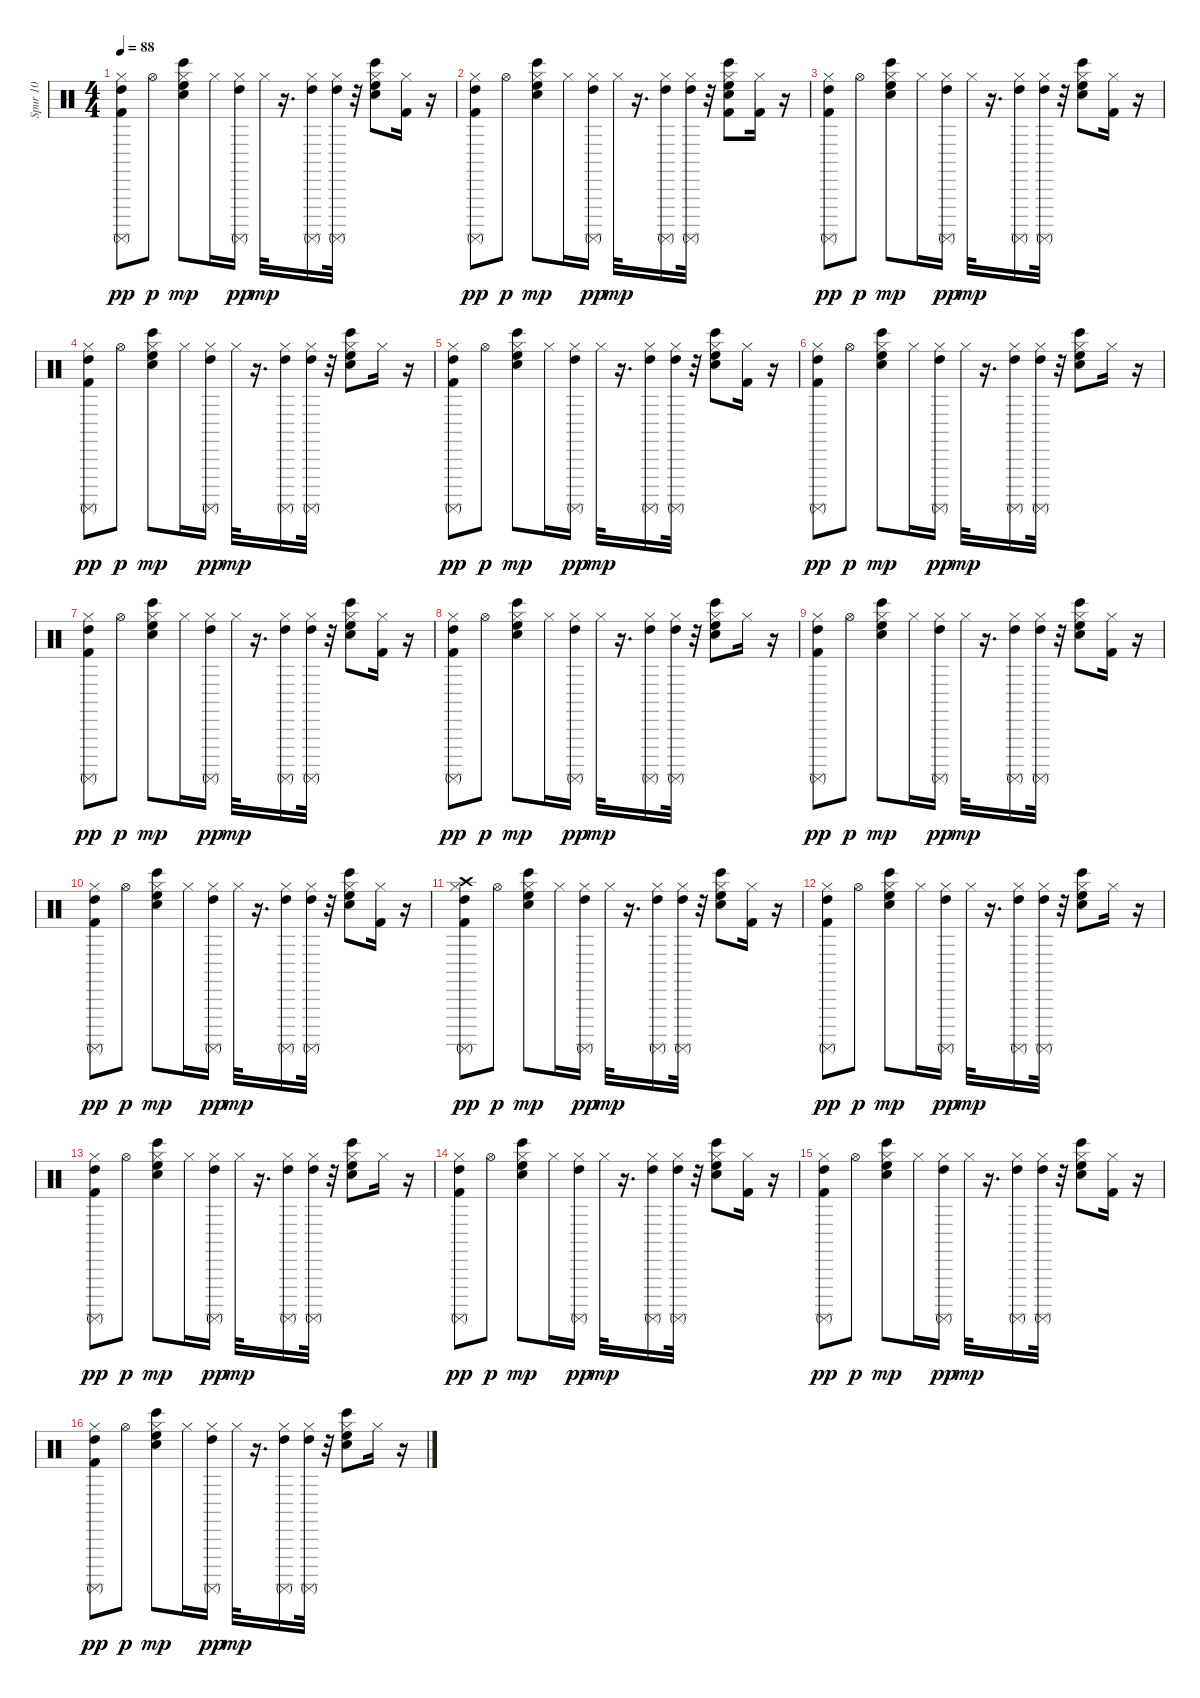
\track ("Spur 10" "Spur 10") {instrument percussion}
\staff {score}
\articulation defaults
\ts (4 4)
\tempo 88
\clef neutral
\ks c
("Kick (hit) 2" "High Tom (hit)" "Surdo (mute)" "Hi-Hat (closed)").8{dy pp} "Hi-Hat (open)".8{dy p} ("Bongo High (hit)" "Hand Clap (hit)" "High Floor Tom (hit)" "Hi-Hat (closed)").8{dy mp} "Hi-Hat (closed)".16 ("High Tom (hit)" "Surdo (mute)" "Hi-Hat (closed)").16{dy pp} "Hi-Hat (closed)".32{dy mp} r.16{d} ("High Tom (hit)" "Surdo (mute)" "Hi-Hat (closed)").16 ("Hi-Hat (closed)" "High Tom (hit)" "Surdo (mute)").32 r.32 ("Bongo High (hit)" "Hand Clap (hit)" "High Floor Tom (hit)" "Hi-Hat (closed)").8 ("Kick (hit) 2" "Hi-Hat (closed)").16 r.16 |
("Kick (hit) 2" "High Tom (hit)" "Surdo (mute)" "Hi-Hat (closed)").8{dy pp} "Hi-Hat (open)".8{dy p} ("Bongo High (hit)" "Hand Clap (hit)" "High Floor Tom (hit)" "Hi-Hat (closed)").8{dy mp} "Hi-Hat (closed)".16 ("High Tom (hit)" "Surdo (mute)" "Hi-Hat (closed)").16{dy pp} "Hi-Hat (closed)".32{dy mp} r.16{d} ("High Tom (hit)" "Surdo (mute)" "Hi-Hat (closed)").16 ("Hi-Hat (closed)" "High Tom (hit)" "Surdo (mute)").32 r.32 ("Bongo High (hit)" "Kick (hit) 2" "Hand Clap (hit)" "High Floor Tom (hit)" "Hi-Hat (closed)").8 ("Kick (hit) 2" "Hi-Hat (closed)").16 r.16 |
("Kick (hit) 2" "High Tom (hit)" "Surdo (mute)" "Hi-Hat (closed)").8{dy pp} "Hi-Hat (open)".8{dy p} ("Bongo High (hit)" "Hand Clap (hit)" "High Floor Tom (hit)" "Hi-Hat (closed)").8{dy mp} "Hi-Hat (closed)".16 ("High Tom (hit)" "Surdo (mute)" "Hi-Hat (closed)").16{dy pp} "Hi-Hat (closed)".32{dy mp} r.16{d} ("High Tom (hit)" "Surdo (mute)" "Hi-Hat (closed)").16 ("Hi-Hat (closed)" "High Tom (hit)" "Surdo (mute)").32 r.32 ("Bongo High (hit)" "Hand Clap (hit)" "High Floor Tom (hit)" "Hi-Hat (closed)").8 ("Kick (hit) 2" "Hi-Hat (closed)").16 r.16 |
("Kick (hit) 2" "High Tom (hit)" "Surdo (mute)" "Hi-Hat (closed)").8{dy pp} "Hi-Hat (open)".8{dy p} ("Bongo High (hit)" "Hand Clap (hit)" "High Floor Tom (hit)" "Hi-Hat (closed)").8{dy mp} "Hi-Hat (closed)".16 ("High Tom (hit)" "Surdo (mute)" "Hi-Hat (closed)").16{dy pp} "Hi-Hat (closed)".32{dy mp} r.16{d} ("High Tom (hit)" "Surdo (mute)" "Hi-Hat (closed)").16 ("Hi-Hat (closed)" "High Tom (hit)" "Surdo (mute)").32 r.32 ("Bongo High (hit)" "Hand Clap (hit)" "High Floor Tom (hit)" "Hi-Hat (closed)").8 "Hi-Hat (closed)".16 r.16 |
("Kick (hit) 2" "High Tom (hit)" "Surdo (mute)" "Hi-Hat (closed)").8{dy pp} "Hi-Hat (open)".8{dy p} ("Bongo High (hit)" "Hand Clap (hit)" "High Floor Tom (hit)" "Hi-Hat (closed)").8{dy mp} "Hi-Hat (closed)".16 ("High Tom (hit)" "Surdo (mute)" "Hi-Hat (closed)").16{dy pp} "Hi-Hat (closed)".32{dy mp} r.16{d} ("High Tom (hit)" "Surdo (mute)" "Hi-Hat (closed)").16 ("Hi-Hat (closed)" "High Tom (hit)" "Surdo (mute)").32 r.32 ("Bongo High (hit)" "Hand Clap (hit)" "High Floor Tom (hit)" "Hi-Hat (closed)").8 ("Kick (hit) 2" "Hi-Hat (closed)").16 r.16 |
("Kick (hit) 2" "High Tom (hit)" "Surdo (mute)" "Hi-Hat (closed)").8{dy pp} "Hi-Hat (open)".8{dy p} ("Bongo High (hit)" "Hand Clap (hit)" "High Floor Tom (hit)" "Hi-Hat (closed)").8{dy mp} "Hi-Hat (closed)".16 ("High Tom (hit)" "Surdo (mute)" "Hi-Hat (closed)").16{dy pp} "Hi-Hat (closed)".32{dy mp} r.16{d} ("High Tom (hit)" "Surdo (mute)" "Hi-Hat (closed)").16 ("Hi-Hat (closed)" "High Tom (hit)" "Surdo (mute)").32 r.32 ("Bongo High (hit)" "Hand Clap (hit)" "High Floor Tom (hit)" "Hi-Hat (closed)").8 "Hi-Hat (closed)".16 r.16 |
("Kick (hit) 2" "High Tom (hit)" "Surdo (mute)" "Hi-Hat (closed)").8{dy pp} "Hi-Hat (open)".8{dy p} ("Bongo High (hit)" "Hand Clap (hit)" "High Floor Tom (hit)" "Hi-Hat (closed)").8{dy mp} "Hi-Hat (closed)".16 ("High Tom (hit)" "Surdo (mute)" "Hi-Hat (closed)").16{dy pp} "Hi-Hat (closed)".32{dy mp} r.16{d} ("High Tom (hit)" "Surdo (mute)" "Hi-Hat (closed)").16 ("Hi-Hat (closed)" "High Tom (hit)" "Surdo (mute)").32 r.32 ("Bongo High (hit)" "Hand Clap (hit)" "High Floor Tom (hit)" "Hi-Hat (closed)").8 ("Kick (hit) 2" "Hi-Hat (closed)").16 r.16 |
("Kick (hit) 2" "High Tom (hit)" "Surdo (mute)" "Hi-Hat (closed)").8{dy pp} "Hi-Hat (open)".8{dy p} ("Bongo High (hit)" "Hand Clap (hit)" "High Floor Tom (hit)" "Hi-Hat (closed)").8{dy mp} "Hi-Hat (closed)".16 ("High Tom (hit)" "Surdo (mute)" "Hi-Hat (closed)").16{dy pp} "Hi-Hat (closed)".32{dy mp} r.16{d} ("High Tom (hit)" "Surdo (mute)" "Hi-Hat (closed)").16 ("Hi-Hat (closed)" "High Tom (hit)" "Surdo (mute)").32 r.32 ("Bongo High (hit)" "Hand Clap (hit)" "High Floor Tom (hit)" "Hi-Hat (closed)").8 "Hi-Hat (closed)".16 r.16 |
("Kick (hit) 2" "High Tom (hit)" "Surdo (mute)" "Hi-Hat (closed)").8{dy pp} "Hi-Hat (open)".8{dy p} ("Bongo High (hit)" "Hand Clap (hit)" "High Floor Tom (hit)" "Hi-Hat (closed)").8{dy mp} "Hi-Hat (closed)".16 ("High Tom (hit)" "Surdo (mute)" "Hi-Hat (closed)").16{dy pp} "Hi-Hat (closed)".32{dy mp} r.16{d} ("High Tom (hit)" "Surdo (mute)" "Hi-Hat (closed)").16 ("Hi-Hat (closed)" "High Tom (hit)" "Surdo (mute)").32 r.32 ("Bongo High (hit)" "Hand Clap (hit)" "High Floor Tom (hit)" "Hi-Hat (closed)").8 ("Kick (hit) 2" "Hi-Hat (closed)").16 r.16 |
("Kick (hit) 2" "High Tom (hit)" "Surdo (mute)" "Hi-Hat (closed)").8{dy pp} "Hi-Hat (open)".8{dy p} ("Bongo High (hit)" "Hand Clap (hit)" "High Floor Tom (hit)" "Hi-Hat (closed)").8{dy mp} "Hi-Hat (closed)".16 ("High Tom (hit)" "Surdo (mute)" "Hi-Hat (closed)").16{dy pp} "Hi-Hat (closed)".32{dy mp} r.16{d} ("High Tom (hit)" "Surdo (mute)" "Hi-Hat (closed)").16 ("Hi-Hat (closed)" "High Tom (hit)" "Surdo (mute)").32 r.32 ("Bongo High (hit)" "Hand Clap (hit)" "High Floor Tom (hit)" "Hi-Hat (closed)").8 ("Kick (hit) 2" "Hi-Hat (closed)").16 r.16 |
("Kick (hit) 2" "High Tom (hit)" "Surdo (mute)" "Crash high (hit)" "Hi-Hat (closed)").8{dy pp} "Hi-Hat (open)".8{dy p} ("Bongo High (hit)" "Hand Clap (hit)" "High Floor Tom (hit)" "Hi-Hat (closed)").8{dy mp} "Hi-Hat (closed)".16 ("High Tom (hit)" "Surdo (mute)" "Hi-Hat (closed)").16{dy pp} "Hi-Hat (closed)".32{dy mp} r.16{d} ("High Tom (hit)" "Surdo (mute)" "Hi-Hat (closed)").16 ("Hi-Hat (closed)" "High Tom (hit)" "Surdo (mute)").32 r.32 ("Bongo High (hit)" "Hand Clap (hit)" "High Floor Tom (hit)" "Hi-Hat (closed)").8 ("Kick (hit) 2" "Hi-Hat (closed)").16 r.16 |
("Kick (hit) 2" "High Tom (hit)" "Surdo (mute)" "Hi-Hat (closed)").8{dy pp} "Hi-Hat (open)".8{dy p} ("Bongo High (hit)" "Hand Clap (hit)" "High Floor Tom (hit)" "Hi-Hat (closed)").8{dy mp} "Hi-Hat (closed)".16 ("High Tom (hit)" "Surdo (mute)" "Hi-Hat (closed)").16{dy pp} "Hi-Hat (closed)".32{dy mp} r.16{d} ("High Tom (hit)" "Surdo (mute)" "Hi-Hat (closed)").16 ("Hi-Hat (closed)" "High Tom (hit)" "Surdo (mute)").32 r.32 ("Bongo High (hit)" "Hand Clap (hit)" "High Floor Tom (hit)" "Hi-Hat (closed)").8 "Hi-Hat (closed)".16 r.16 |
("Kick (hit) 2" "High Tom (hit)" "Surdo (mute)" "Hi-Hat (closed)").8{dy pp} "Hi-Hat (open)".8{dy p} ("Bongo High (hit)" "Hand Clap (hit)" "High Floor Tom (hit)" "Hi-Hat (closed)").8{dy mp} "Hi-Hat (closed)".16 ("High Tom (hit)" "Surdo (mute)" "Hi-Hat (closed)").16{dy pp} "Hi-Hat (closed)".32{dy mp} r.16{d} ("High Tom (hit)" "Surdo (mute)" "Hi-Hat (closed)").16 ("Hi-Hat (closed)" "High Tom (hit)" "Surdo (mute)").32 r.32 ("Bongo High (hit)" "Hand Clap (hit)" "High Floor Tom (hit)" "Hi-Hat (closed)").8 "Hi-Hat (closed)".16 r.16 |
("Kick (hit) 2" "High Tom (hit)" "Surdo (mute)" "Hi-Hat (closed)").8{dy pp} "Hi-Hat (open)".8{dy p} ("Bongo High (hit)" "Hand Clap (hit)" "High Floor Tom (hit)" "Hi-Hat (closed)").8{dy mp} "Hi-Hat (closed)".16 ("High Tom (hit)" "Surdo (mute)" "Hi-Hat (closed)").16{dy pp} "Hi-Hat (closed)".32{dy mp} r.16{d} ("High Tom (hit)" "Surdo (mute)" "Hi-Hat (closed)").16 ("Hi-Hat (closed)" "High Tom (hit)" "Surdo (mute)").32 r.32 ("Bongo High (hit)" "Hand Clap (hit)" "High Floor Tom (hit)" "Hi-Hat (closed)").8 ("Kick (hit) 2" "Hi-Hat (closed)").16 r.16 |
("Kick (hit) 2" "High Tom (hit)" "Surdo (mute)" "Hi-Hat (closed)").8{dy pp} "Hi-Hat (open)".8{dy p} ("Bongo High (hit)" "Hand Clap (hit)" "High Floor Tom (hit)" "Hi-Hat (closed)").8{dy mp} "Hi-Hat (closed)".16 ("High Tom (hit)" "Surdo (mute)" "Hi-Hat (closed)").16{dy pp} "Hi-Hat (closed)".32{dy mp} r.16{d} ("High Tom (hit)" "Surdo (mute)" "Hi-Hat (closed)").16 ("Hi-Hat (closed)" "High Tom (hit)" "Surdo (mute)").32 r.32 ("Bongo High (hit)" "Hand Clap (hit)" "High Floor Tom (hit)" "Hi-Hat (closed)").8 ("Kick (hit) 2" "Hi-Hat (closed)").16 r.16 |
("Kick (hit) 2" "High Tom (hit)" "Surdo (mute)" "Hi-Hat (closed)").8{dy pp} "Hi-Hat (open)".8{dy p} ("Bongo High (hit)" "Hand Clap (hit)" "High Floor Tom (hit)" "Hi-Hat (closed)").8{dy mp} "Hi-Hat (closed)".16 ("High Tom (hit)" "Surdo (mute)" "Hi-Hat (closed)").16{dy pp} "Hi-Hat (closed)".32{dy mp} r.16{d} ("High Tom (hit)" "Surdo (mute)" "Hi-Hat (closed)").16 ("Hi-Hat (closed)" "High Tom (hit)" "Surdo (mute)").32 r.32 ("Bongo High (hit)" "Hand Clap (hit)" "High Floor Tom (hit)" "Hi-Hat (closed)").8 "Hi-Hat (closed)".16 r.16
